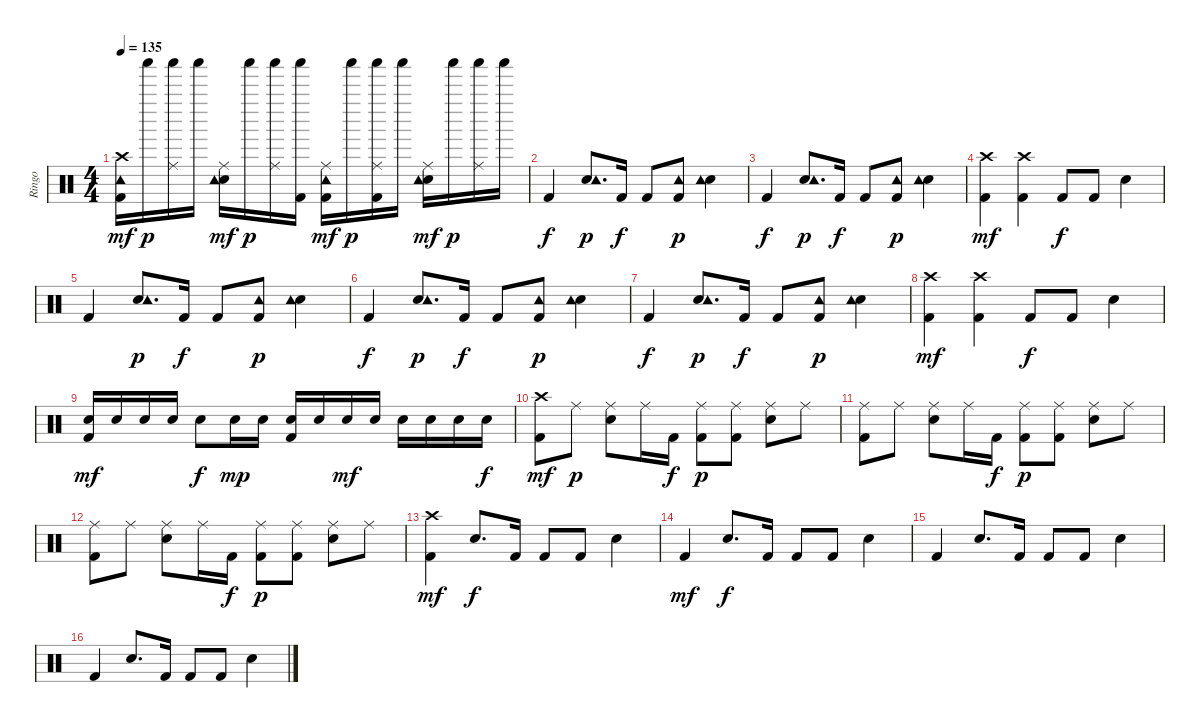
\track ("Ringo" "Ringo") {instrument percussion}
\staff {score}
\articulation defaults
\ts (4 4)
\tempo 135
\clef neutral
\ks c
("Crash high (hit)" "Kick (hit) 2" "Tambourine (hit)").16{dy mf} "Shaker (hit)".16{dy p} ("Ride (middle)" "Shaker (hit)").16 "Shaker (hit)".16 ("Ride (middle)" "Electric Snare (hit)" "Tambourine (hit)").16{dy mf} "Shaker (hit)".16{dy p} ("Ride (middle)" "Shaker (hit)").16 ("Kick (hit) 2" "Shaker (hit)").16 ("Ride (middle)" "Kick (hit) 2" "Tambourine (hit)").16{dy mf} "Shaker (hit)".16{dy p} ("Ride (middle)" "Kick (hit) 2" "Shaker (hit)").16 "Shaker (hit)".16 ("Ride (middle)" "Electric Snare (hit)" "Tambourine (hit)").16{dy mf} "Shaker (hit)".16{dy p} ("Ride (middle)" "Shaker (hit)").16 "Shaker (hit)".16 |
"Kick (hit) 2".4{dy f} ("Electric Snare (hit)" "Tambourine (hit)").8{d dy p} "Kick (hit) 2".16{dy f} "Kick (hit) 2".8 ("Kick (hit) 2" "Tambourine (hit)").8{dy p} ("Electric Snare (hit)" "Tambourine (hit)").4 |
"Kick (hit) 2".4{dy f} ("Electric Snare (hit)" "Tambourine (hit)").8{d dy p} "Kick (hit) 2".16{dy f} "Kick (hit) 2".8 ("Kick (hit) 2" "Tambourine (hit)").8{dy p} ("Electric Snare (hit)" "Tambourine (hit)").4 |
("Crash high (hit)" "Kick (hit) 2").4{dy mf} ("Crash high (hit)" "Kick (hit) 2").4 "Kick (hit) 2".8{dy f} "Kick (hit) 2".8 "Electric Snare (hit)".4 |
"Kick (hit) 2".4 ("Electric Snare (hit)" "Tambourine (hit)").8{d dy p} "Kick (hit) 2".16{dy f} "Kick (hit) 2".8 ("Kick (hit) 2" "Tambourine (hit)").8{dy p} ("Electric Snare (hit)" "Tambourine (hit)").4 |
"Kick (hit) 2".4{dy f} ("Electric Snare (hit)" "Tambourine (hit)").8{d dy p} "Kick (hit) 2".16{dy f} "Kick (hit) 2".8 ("Kick (hit) 2" "Tambourine (hit)").8{dy p} ("Electric Snare (hit)" "Tambourine (hit)").4 |
"Kick (hit) 2".4{dy f} ("Electric Snare (hit)" "Tambourine (hit)").8{d dy p} "Kick (hit) 2".16{dy f} "Kick (hit) 2".8 ("Kick (hit) 2" "Tambourine (hit)").8{dy p} ("Electric Snare (hit)" "Tambourine (hit)").4 |
("Crash high (hit)" "Kick (hit) 2").4{dy mf} ("Crash high (hit)" "Kick (hit) 2").4 "Kick (hit) 2".8{dy f} "Kick (hit) 2".8 "Electric Snare (hit)".4 |
("Electric Snare (hit)" "Kick (hit) 2").16{dy mf} "Electric Snare (hit)".16 "Electric Snare (hit)".16 "Electric Snare (hit)".16 "Electric Snare (hit)".8{dy f} "Electric Snare (hit)".16{dy mp} "Electric Snare (hit)".16 ("Electric Snare (hit)" "Kick (hit) 2").16 "Electric Snare (hit)".16 "Electric Snare (hit)".16{dy mf} "Electric Snare (hit)".16 "Electric Snare (hit)".16 "Electric Snare (hit)".16 "Electric Snare (hit)".16 "Electric Snare (hit)".16{dy f} |
("Crash high (hit)" "Kick (hit) 2").8{dy mf} "Ride (middle)".8{dy p} ("Ride (middle)" "Electric Snare (hit)").8 "Ride (middle)".16 "Kick (hit) 2".16{dy f} ("Ride (middle)" "Kick (hit) 2").8{dy p} ("Ride (middle)" "Kick (hit) 2").8 ("Ride (middle)" "Electric Snare (hit)").8 "Ride (middle)".8 |
("Ride (middle)" "Kick (hit) 2").8 "Ride (middle)".8 ("Ride (middle)" "Electric Snare (hit)").8 "Ride (middle)".16 "Kick (hit) 2".16{dy f} ("Ride (middle)" "Kick (hit) 2").8{dy p} ("Ride (middle)" "Kick (hit) 2").8 ("Ride (middle)" "Electric Snare (hit)").8 "Ride (middle)".8 |
("Ride (middle)" "Kick (hit) 2").8 "Ride (middle)".8 ("Ride (middle)" "Electric Snare (hit)").8 "Ride (middle)".16 "Kick (hit) 2".16{dy f} ("Ride (middle)" "Kick (hit) 2").8{dy p} ("Ride (middle)" "Kick (hit) 2").8 ("Ride (middle)" "Electric Snare (hit)").8 "Ride (middle)".8 |
("Crash high (hit)" "Kick (hit) 2").4{dy mf} "Electric Snare (hit)".8{d dy f} "Kick (hit) 2".16 "Kick (hit) 2".8 "Kick (hit) 2".8 "Electric Snare (hit)".4 |
"Kick (hit) 2".4{dy mf} "Electric Snare (hit)".8{d dy f} "Kick (hit) 2".16 "Kick (hit) 2".8 "Kick (hit) 2".8 "Electric Snare (hit)".4 |
"Kick (hit) 2".4 "Electric Snare (hit)".8{d} "Kick (hit) 2".16 "Kick (hit) 2".8 "Kick (hit) 2".8 "Electric Snare (hit)".4 |
"Kick (hit) 2".4 "Electric Snare (hit)".8{d} "Kick (hit) 2".16 "Kick (hit) 2".8 "Kick (hit) 2".8 "Electric Snare (hit)".4
